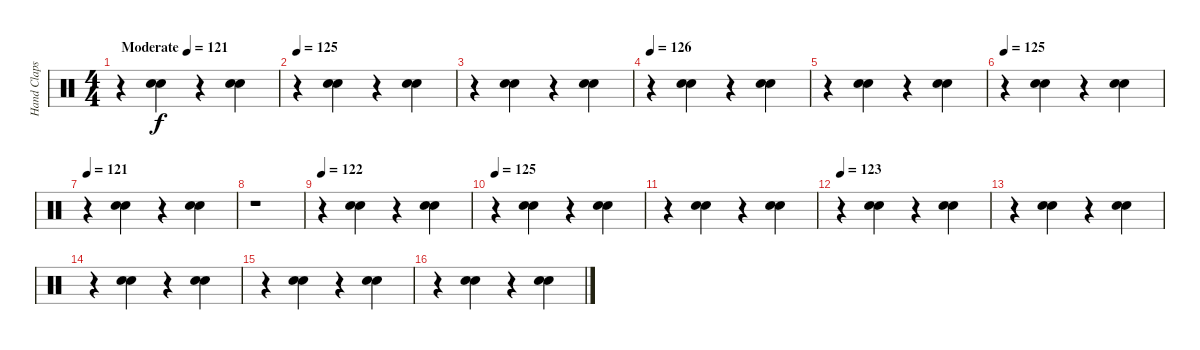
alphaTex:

\track ("Hand Claps" "Hand Claps") {instrument percussion}
\staff {score}
\articulation defaults
\ts (4 4)
\tempo (121 "Moderate")
\clef neutral
\ks c
r.4{dy f} ("Hand Clap (hit)" "Hand Clap (hit)").4 r.4 ("Hand Clap (hit)" "Hand Clap (hit)").4 |
\tempo 125
r.4 ("Hand Clap (hit)" "Hand Clap (hit)").4 r.4 ("Hand Clap (hit)" "Hand Clap (hit)").4 |
r.4 ("Hand Clap (hit)" "Hand Clap (hit)").4 r.4 ("Hand Clap (hit)" "Hand Clap (hit)").4 |
\tempo 126
r.4 ("Hand Clap (hit)" "Hand Clap (hit)").4 r.4 ("Hand Clap (hit)" "Hand Clap (hit)").4 |
r.4 ("Hand Clap (hit)" "Hand Clap (hit)").4 r.4 ("Hand Clap (hit)" "Hand Clap (hit)").4 |
\tempo 125
r.4 ("Hand Clap (hit)" "Hand Clap (hit)").4 r.4 ("Hand Clap (hit)" "Hand Clap (hit)").4 |
\tempo 121
r.4 ("Hand Clap (hit)" "Hand Clap (hit)").4 r.4 ("Hand Clap (hit)" "Hand Clap (hit)").4 |
r.1 |
\tempo 122
r.4 ("Hand Clap (hit)" "Hand Clap (hit)").4 r.4 ("Hand Clap (hit)" "Hand Clap (hit)").4 |
\tempo 125
r.4 ("Hand Clap (hit)" "Hand Clap (hit)").4 r.4 ("Hand Clap (hit)" "Hand Clap (hit)").4 |
r.4 ("Hand Clap (hit)" "Hand Clap (hit)").4 r.4 ("Hand Clap (hit)" "Hand Clap (hit)").4 |
\tempo 123
r.4 ("Hand Clap (hit)" "Hand Clap (hit)").4 r.4 ("Hand Clap (hit)" "Hand Clap (hit)").4 |
r.4 ("Hand Clap (hit)" "Hand Clap (hit)").4 r.4 ("Hand Clap (hit)" "Hand Clap (hit)").4 |
r.4 ("Hand Clap (hit)" "Hand Clap (hit)").4 r.4 ("Hand Clap (hit)" "Hand Clap (hit)").4 |
r.4 ("Hand Clap (hit)" "Hand Clap (hit)").4 r.4 ("Hand Clap (hit)" "Hand Clap (hit)").4 |
r.4 ("Hand Clap (hit)" "Hand Clap (hit)").4 r.4 ("Hand Clap (hit)" "Hand Clap (hit)").4
